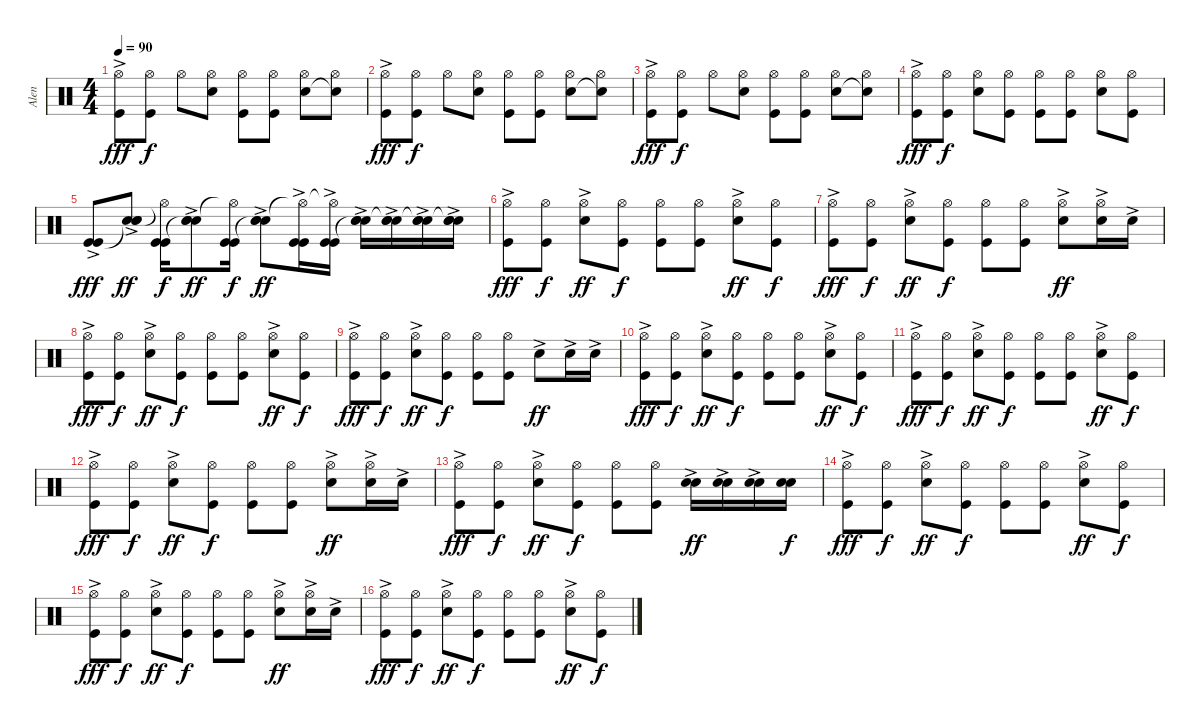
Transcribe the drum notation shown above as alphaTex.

\track ("Alen" "Alen") {instrument percussion}
\staff {score}
\articulation defaults
\ts (4 4)
\tempo 90
\clef neutral
\ks c
("Kick (hit)"{ac} "Hi-Hat (open)").8{dy fff} ("Kick (hit)" "Hi-Hat (open)").8{dy f} "Hi-Hat (open)".8 ("Electric Snare (hit)" "Hi-Hat (open)").8 ("Kick (hit)" "Hi-Hat (open)").8 ("Kick (hit)" "Hi-Hat (open)").8 ("Electric Snare (hit)" "Hi-Hat (open)").8 ("Electric Snare (hit)"{t} "Hi-Hat (open)").8 |
("Kick (hit)"{ac} "Hi-Hat (open)").8{dy fff} ("Kick (hit)" "Hi-Hat (open)").8{dy f} "Hi-Hat (open)".8 ("Electric Snare (hit)" "Hi-Hat (open)").8 ("Kick (hit)" "Hi-Hat (open)").8 ("Kick (hit)" "Hi-Hat (open)").8 ("Electric Snare (hit)" "Hi-Hat (open)").8 ("Electric Snare (hit)"{t} "Hi-Hat (open)").8 |
("Kick (hit)"{ac} "Hi-Hat (open)").8{dy fff} ("Kick (hit)" "Hi-Hat (open)").8{dy f} "Hi-Hat (open)".8 ("Electric Snare (hit)" "Hi-Hat (open)").8 ("Kick (hit)" "Hi-Hat (open)").8 ("Kick (hit)" "Hi-Hat (open)").8 ("Electric Snare (hit)" "Hi-Hat (open)").8 ("Electric Snare (hit)"{t} "Hi-Hat (open)").8 |
("Kick (hit)"{ac} "Hi-Hat (open)").8{dy fff} ("Kick (hit)" "Hi-Hat (open)").8{dy f} ("Electric Snare (hit)" "Hi-Hat (open)").8 ("Kick (hit)" "Hi-Hat (open)").8 ("Kick (hit)" "Hi-Hat (open)").8 ("Kick (hit)" "Hi-Hat (open)").8 ("Electric Snare (hit)" "Hi-Hat (open)").8 ("Kick (hit)" "Hi-Hat (open)").8 |
("Kick (hit)"{ac} "Kick (hit)").8{dy fff} ("Electric Snare (hit)"{ac} "Snare (hit)"{t} "Snare (hit) 2").8{dy ff} ("Kick (hit)" "Kick (hit)" "Hi-Hat (open)"{t}).16{dy f} ("Electric Snare (hit)"{ac} "Snare (hit)"{t} "Snare (hit) 2").8{dy ff} ("Kick (hit)" "Kick (hit)" "Hi-Hat (open)"{t}).16{dy f} ("Electric Snare (hit)"{ac} "Snare (hit)"{t} "Snare (hit) 2").8{dy ff} ("Kick (hit)"{ac} "Kick (hit)" "Hi-Hat (open)"{t}).16 ("Kick (hit)"{ac} "Kick (hit)" "Hi-Hat (open)"{t}).16 ("Electric Snare (hit)"{ac} "Snare (hit)"{t} "Snare (hit) 2").16 ("Electric Snare (hit)"{ac} "Snare (hit)"{t} "Snare (hit) 2").16 ("Electric Snare (hit)"{ac} "Snare (hit)"{t} "Snare (hit) 2").16 ("Electric Snare (hit)"{ac} "Snare (hit)"{t} "Snare (hit) 2").16 |
("Kick (hit)"{ac} "Hi-Hat (open)").8{dy fff} ("Kick (hit)" "Hi-Hat (open)").8{dy f} ("Snare (hit) 2"{ac} "Hi-Hat (open)").8{dy ff} ("Kick (hit)" "Hi-Hat (open)").8{dy f} ("Kick (hit)" "Hi-Hat (open)").8 ("Kick (hit)" "Hi-Hat (open)").8 ("Snare (hit) 2"{ac} "Hi-Hat (open)").8{dy ff} ("Kick (hit)" "Hi-Hat (open)").8{dy f} |
("Kick (hit)"{ac} "Hi-Hat (open)").8{dy fff} ("Kick (hit)" "Hi-Hat (open)").8{dy f} ("Snare (hit) 2"{ac} "Hi-Hat (open)").8{dy ff} ("Kick (hit)" "Hi-Hat (open)").8{dy f} ("Kick (hit)" "Hi-Hat (open)").8 ("Kick (hit)" "Hi-Hat (open)").8 ("Snare (hit) 2"{ac} "Hi-Hat (open)").8{dy ff} ("Snare (hit) 2"{ac} "Hi-Hat (open)").16 "Snare (hit) 2"{ac}.16 |
("Kick (hit)"{ac} "Hi-Hat (open)").8{dy fff} ("Kick (hit)" "Hi-Hat (open)").8{dy f} ("Snare (hit) 2"{ac} "Hi-Hat (open)").8{dy ff} ("Kick (hit)" "Hi-Hat (open)").8{dy f} ("Kick (hit)" "Hi-Hat (open)").8 ("Kick (hit)" "Hi-Hat (open)").8 ("Snare (hit) 2"{ac} "Hi-Hat (open)").8{dy ff} ("Kick (hit)" "Hi-Hat (open)").8{dy f} |
("Kick (hit)"{ac} "Hi-Hat (open)").8{dy fff} ("Kick (hit)" "Hi-Hat (open)").8{dy f} ("Snare (hit) 2"{ac} "Hi-Hat (open)").8{dy ff} ("Kick (hit)" "Hi-Hat (open)").8{dy f} ("Kick (hit)" "Hi-Hat (open)").8 ("Kick (hit)" "Hi-Hat (open)").8 "Snare (hit) 2"{ac}.8{dy ff} "Snare (hit) 2"{ac}.16 "Snare (hit) 2"{ac}.16 |
("Kick (hit)"{ac} "Hi-Hat (open)").8{dy fff} ("Kick (hit)" "Hi-Hat (open)").8{dy f} ("Snare (hit) 2"{ac} "Hi-Hat (open)").8{dy ff} ("Kick (hit)" "Hi-Hat (open)").8{dy f} ("Kick (hit)" "Hi-Hat (open)").8 ("Kick (hit)" "Hi-Hat (open)").8 ("Snare (hit) 2"{ac} "Hi-Hat (open)").8{dy ff} ("Kick (hit)" "Hi-Hat (open)").8{dy f} |
("Kick (hit)"{ac} "Hi-Hat (open)").8{dy fff} ("Kick (hit)" "Hi-Hat (open)").8{dy f} ("Snare (hit) 2"{ac} "Hi-Hat (open)").8{dy ff} ("Kick (hit)" "Hi-Hat (open)").8{dy f} ("Kick (hit)" "Hi-Hat (open)").8 ("Kick (hit)" "Hi-Hat (open)").8 ("Snare (hit) 2"{ac} "Hi-Hat (open)").8{dy ff} ("Kick (hit)" "Hi-Hat (open)").8{dy f} |
("Kick (hit)"{ac} "Hi-Hat (open)").8{dy fff} ("Kick (hit)" "Hi-Hat (open)").8{dy f} ("Snare (hit) 2"{ac} "Hi-Hat (open)").8{dy ff} ("Kick (hit)" "Hi-Hat (open)").8{dy f} ("Kick (hit)" "Hi-Hat (open)").8 ("Kick (hit)" "Hi-Hat (open)").8 ("Snare (hit) 2"{ac} "Hi-Hat (open)").8{dy ff} ("Snare (hit) 2"{ac} "Hi-Hat (open)").16 "Snare (hit) 2"{ac}.16 |
("Kick (hit)"{ac} "Hi-Hat (open)").8{dy fff} ("Kick (hit)" "Hi-Hat (open)").8{dy f} ("Snare (hit) 2"{ac} "Hi-Hat (open)").8{dy ff} ("Kick (hit)" "Hi-Hat (open)").8{dy f} ("Kick (hit)" "Hi-Hat (open)").8 ("Kick (hit)" "Hi-Hat (open)").8 ("Snare (hit) 2"{ac} "Snare (hit) 2").16{dy ff} ("Snare (hit) 2"{ac} "Snare (hit) 2").16 ("Snare (hit) 2"{ac} "Snare (hit) 2").16 ("Snare (hit) 2" "Snare (hit) 2").16{dy f} |
("Kick (hit)"{ac} "Hi-Hat (open)").8{dy fff} ("Kick (hit)" "Hi-Hat (open)").8{dy f} ("Snare (hit) 2"{ac} "Hi-Hat (open)").8{dy ff} ("Kick (hit)" "Hi-Hat (open)").8{dy f} ("Kick (hit)" "Hi-Hat (open)").8 ("Kick (hit)" "Hi-Hat (open)").8 ("Snare (hit) 2"{ac} "Hi-Hat (open)").8{dy ff} ("Kick (hit)" "Hi-Hat (open)").8{dy f} |
("Kick (hit)"{ac} "Hi-Hat (open)").8{dy fff} ("Kick (hit)" "Hi-Hat (open)").8{dy f} ("Snare (hit) 2"{ac} "Hi-Hat (open)").8{dy ff} ("Kick (hit)" "Hi-Hat (open)").8{dy f} ("Kick (hit)" "Hi-Hat (open)").8 ("Kick (hit)" "Hi-Hat (open)").8 ("Snare (hit) 2"{ac} "Hi-Hat (open)").8{dy ff} ("Snare (hit) 2"{ac} "Hi-Hat (open)").16 "Snare (hit) 2"{ac}.16 |
("Kick (hit)"{ac} "Hi-Hat (open)").8{dy fff} ("Kick (hit)" "Hi-Hat (open)").8{dy f} ("Snare (hit) 2"{ac} "Hi-Hat (open)").8{dy ff} ("Kick (hit)" "Hi-Hat (open)").8{dy f} ("Kick (hit)" "Hi-Hat (open)").8 ("Kick (hit)" "Hi-Hat (open)").8 ("Snare (hit) 2"{ac} "Hi-Hat (open)").8{dy ff} ("Kick (hit)" "Hi-Hat (open)").8{dy f}
